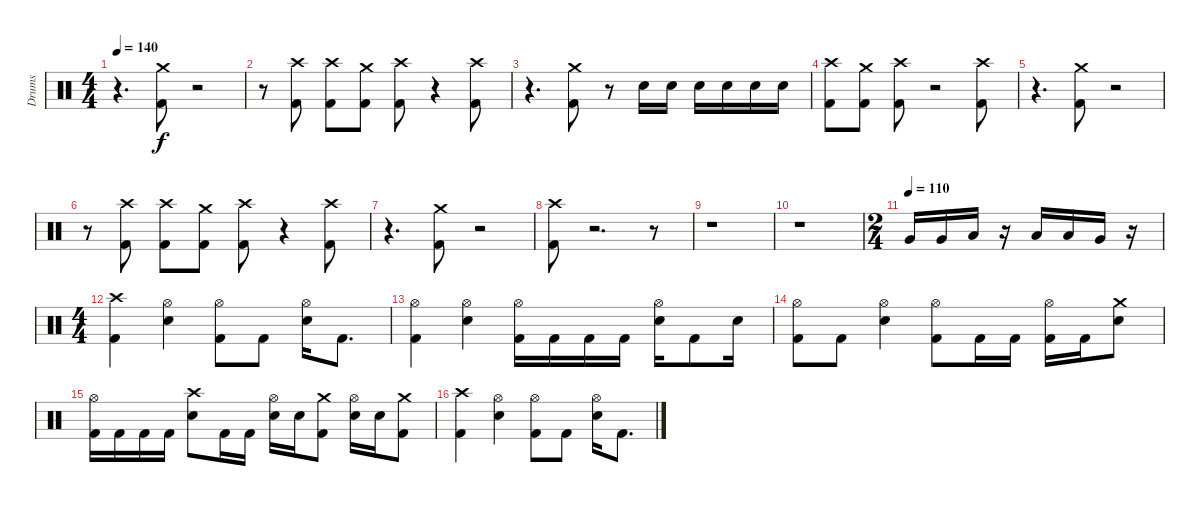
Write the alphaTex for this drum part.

\track ("Drums" "Drums") {instrument percussion}
\staff {score}
\articulation defaults
\ts (4 4)
\tempo 140
\clef neutral
\ks c
r.4{d dy f} ("Crash medium (hit)" "Kick (hit) 2").8 r.2 |
r.8 ("Crash high (hit)" "Kick (hit) 2").8 ("Crash high (hit)" "Kick (hit) 2").8 ("Crash medium (hit)" "Kick (hit) 2").8 ("Crash high (hit)" "Kick (hit) 2").8 r.4 ("Crash high (hit)" "Kick (hit) 2").8 |
r.4{d} ("Crash medium (hit)" "Kick (hit) 2").8 r.8 "Electric Snare (hit)".16 "Electric Snare (hit)".16 "Electric Snare (hit)".16 "Electric Snare (hit)".16 "Electric Snare (hit)".16 "Electric Snare (hit)".16 |
("Crash high (hit)" "Kick (hit) 2").8 ("Crash medium (hit)" "Kick (hit) 2").8 ("Crash high (hit)" "Kick (hit) 2").8 r.2 ("Crash high (hit)" "Kick (hit) 2").8 |
r.4{d} ("Crash medium (hit)" "Kick (hit) 2").8 r.2 |
r.8 ("Crash high (hit)" "Kick (hit) 2").8 ("Crash high (hit)" "Kick (hit) 2").8 ("Crash medium (hit)" "Kick (hit) 2").8 ("Crash high (hit)" "Kick (hit) 2").8 r.4 ("Crash high (hit)" "Kick (hit) 2").8 |
r.4{d} ("Crash medium (hit)" "Kick (hit) 2").8 r.2 |
("Crash high (hit)" "Kick (hit) 2").8 r.2{d} r.8 |
r.1 |
r.1 |
\ts (2 4)
\tempo (110)
"Very Low Tom (hit)".16 "Very Low Tom (hit)".16 "Low Tom (hit)".16 r.16 "Low Floor Tom (hit)".16 "Low Floor Tom (hit)".16 "Very Low Tom (hit)".16 r.16 |
\ts (4 4)
("Crash high (hit)" "Kick (hit) 2").4 ("Hi-Hat (open)" "Electric Snare (hit)").4 ("Hi-Hat (open)" "Kick (hit) 2").8 "Kick (hit) 2".8 ("Hi-Hat (open)" "Electric Snare (hit)").16 "Kick (hit) 2".8{d} |
("Hi-Hat (open)" "Kick (hit) 2").4 ("Hi-Hat (open)" "Electric Snare (hit)").4 ("Hi-Hat (open)" "Kick (hit) 2").16 "Kick (hit) 2".16 "Kick (hit) 2".16 "Kick (hit) 2".16 ("Hi-Hat (open)" "Electric Snare (hit)").16 "Kick (hit) 2".8 "Electric Snare (hit)".16 |
("Hi-Hat (open)" "Kick (hit) 2").8 "Kick (hit) 2".8 ("Hi-Hat (open)" "Electric Snare (hit)").4 ("Hi-Hat (open)" "Kick (hit) 2").8 "Kick (hit) 2".16 "Kick (hit) 2".16 ("Hi-Hat (open)" "Kick (hit) 2").16 "Kick (hit) 2".16 ("Crash medium (hit)" "Electric Snare (hit)").8 |
("Hi-Hat (open)" "Kick (hit) 2").16 "Kick (hit) 2".16 "Kick (hit) 2".16 "Kick (hit) 2".16 ("Crash high (hit)" "Electric Snare (hit)").8 "Kick (hit) 2".16 "Kick (hit) 2".16 ("Hi-Hat (open)" "Electric Snare (hit)").16 "Electric Snare (hit)".16 ("Crash medium (hit)" "Kick (hit) 2").8 ("Hi-Hat (open)" "Electric Snare (hit)").16 "Electric Snare (hit)".16 ("Crash medium (hit)" "Kick (hit) 2").8 |
("Crash high (hit)" "Kick (hit) 2").4 ("Hi-Hat (open)" "Electric Snare (hit)").4 ("Hi-Hat (open)" "Kick (hit) 2").8 "Kick (hit) 2".8 ("Hi-Hat (open)" "Electric Snare (hit)").16 "Kick (hit) 2".8{d}
